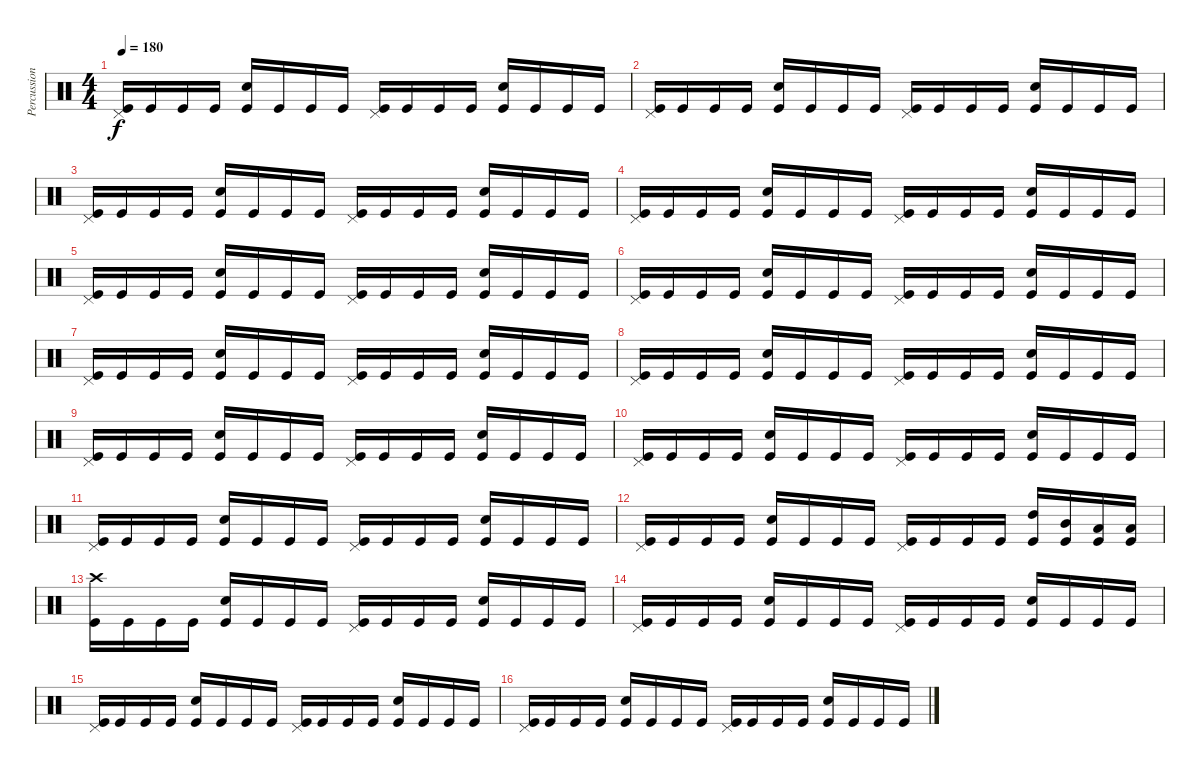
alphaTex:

\track ("Percussion" "Percussion") {instrument percussion}
\staff {score}
\articulation defaults
\ts (4 4)
\tempo 180
\clef neutral
\ks c
("Pedal Hi-Hat (hit)" "Kick (hit)").16{dy f} "Kick (hit)".16 "Kick (hit)".16 "Kick (hit)".16 ("Electric Snare (hit)" "Kick (hit)").16 "Kick (hit)".16 "Kick (hit)".16 "Kick (hit)".16 ("Pedal Hi-Hat (hit)" "Kick (hit)").16 "Kick (hit)".16 "Kick (hit)".16 "Kick (hit)".16 ("Electric Snare (hit)" "Kick (hit)").16 "Kick (hit)".16 "Kick (hit)".16 "Kick (hit)".16 |
("Pedal Hi-Hat (hit)" "Kick (hit)").16 "Kick (hit)".16 "Kick (hit)".16 "Kick (hit)".16 ("Electric Snare (hit)" "Kick (hit)").16 "Kick (hit)".16 "Kick (hit)".16 "Kick (hit)".16 ("Pedal Hi-Hat (hit)" "Kick (hit)").16 "Kick (hit)".16 "Kick (hit)".16 "Kick (hit)".16 ("Electric Snare (hit)" "Kick (hit)").16 "Kick (hit)".16 "Kick (hit)".16 "Kick (hit)".16 |
("Pedal Hi-Hat (hit)" "Kick (hit)").16 "Kick (hit)".16 "Kick (hit)".16 "Kick (hit)".16 ("Electric Snare (hit)" "Kick (hit)").16 "Kick (hit)".16 "Kick (hit)".16 "Kick (hit)".16 ("Pedal Hi-Hat (hit)" "Kick (hit)").16 "Kick (hit)".16 "Kick (hit)".16 "Kick (hit)".16 ("Electric Snare (hit)" "Kick (hit)").16 "Kick (hit)".16 "Kick (hit)".16 "Kick (hit)".16 |
("Pedal Hi-Hat (hit)" "Kick (hit)").16 "Kick (hit)".16 "Kick (hit)".16 "Kick (hit)".16 ("Electric Snare (hit)" "Kick (hit)").16 "Kick (hit)".16 "Kick (hit)".16 "Kick (hit)".16 ("Pedal Hi-Hat (hit)" "Kick (hit)").16 "Kick (hit)".16 "Kick (hit)".16 "Kick (hit)".16 ("Electric Snare (hit)" "Kick (hit)").16 "Kick (hit)".16 "Kick (hit)".16 "Kick (hit)".16 |
("Pedal Hi-Hat (hit)" "Kick (hit)").16 "Kick (hit)".16 "Kick (hit)".16 "Kick (hit)".16 ("Electric Snare (hit)" "Kick (hit)").16 "Kick (hit)".16 "Kick (hit)".16 "Kick (hit)".16 ("Pedal Hi-Hat (hit)" "Kick (hit)").16 "Kick (hit)".16 "Kick (hit)".16 "Kick (hit)".16 ("Electric Snare (hit)" "Kick (hit)").16 "Kick (hit)".16 "Kick (hit)".16 "Kick (hit)".16 |
("Pedal Hi-Hat (hit)" "Kick (hit)").16 "Kick (hit)".16 "Kick (hit)".16 "Kick (hit)".16 ("Electric Snare (hit)" "Kick (hit)").16 "Kick (hit)".16 "Kick (hit)".16 "Kick (hit)".16 ("Pedal Hi-Hat (hit)" "Kick (hit)").16 "Kick (hit)".16 "Kick (hit)".16 "Kick (hit)".16 ("Electric Snare (hit)" "Kick (hit)").16 "Kick (hit)".16 "Kick (hit)".16 "Kick (hit)".16 |
("Pedal Hi-Hat (hit)" "Kick (hit)").16 "Kick (hit)".16 "Kick (hit)".16 "Kick (hit)".16 ("Electric Snare (hit)" "Kick (hit)").16 "Kick (hit)".16 "Kick (hit)".16 "Kick (hit)".16 ("Pedal Hi-Hat (hit)" "Kick (hit)").16 "Kick (hit)".16 "Kick (hit)".16 "Kick (hit)".16 ("Electric Snare (hit)" "Kick (hit)").16 "Kick (hit)".16 "Kick (hit)".16 "Kick (hit)".16 |
("Pedal Hi-Hat (hit)" "Kick (hit)").16 "Kick (hit)".16 "Kick (hit)".16 "Kick (hit)".16 ("Electric Snare (hit)" "Kick (hit)").16 "Kick (hit)".16 "Kick (hit)".16 "Kick (hit)".16 ("Pedal Hi-Hat (hit)" "Kick (hit)").16 "Kick (hit)".16 "Kick (hit)".16 "Kick (hit)".16 ("Electric Snare (hit)" "Kick (hit)").16 "Kick (hit)".16 "Kick (hit)".16 "Kick (hit)".16 |
("Pedal Hi-Hat (hit)" "Kick (hit)").16 "Kick (hit)".16 "Kick (hit)".16 "Kick (hit)".16 ("Electric Snare (hit)" "Kick (hit)").16 "Kick (hit)".16 "Kick (hit)".16 "Kick (hit)".16 ("Pedal Hi-Hat (hit)" "Kick (hit)").16 "Kick (hit)".16 "Kick (hit)".16 "Kick (hit)".16 ("Electric Snare (hit)" "Kick (hit)").16 "Kick (hit)".16 "Kick (hit)".16 "Kick (hit)".16 |
("Pedal Hi-Hat (hit)" "Kick (hit)").16 "Kick (hit)".16 "Kick (hit)".16 "Kick (hit)".16 ("Electric Snare (hit)" "Kick (hit)").16 "Kick (hit)".16 "Kick (hit)".16 "Kick (hit)".16 ("Pedal Hi-Hat (hit)" "Kick (hit)").16 "Kick (hit)".16 "Kick (hit)".16 "Kick (hit)".16 ("Electric Snare (hit)" "Kick (hit)").16 "Kick (hit)".16 "Kick (hit)".16 "Kick (hit)".16 |
("Pedal Hi-Hat (hit)" "Kick (hit)").16 "Kick (hit)".16 "Kick (hit)".16 "Kick (hit)".16 ("Electric Snare (hit)" "Kick (hit)").16 "Kick (hit)".16 "Kick (hit)".16 "Kick (hit)".16 ("Pedal Hi-Hat (hit)" "Kick (hit)").16 "Kick (hit)".16 "Kick (hit)".16 "Kick (hit)".16 ("Electric Snare (hit)" "Kick (hit)").16 "Kick (hit)".16 "Kick (hit)".16 "Kick (hit)".16 |
("Pedal Hi-Hat (hit)" "Kick (hit)").16 "Kick (hit)".16 "Kick (hit)".16 "Kick (hit)".16 ("Electric Snare (hit)" "Kick (hit)").16 "Kick (hit)".16 "Kick (hit)".16 "Kick (hit)".16 ("Pedal Hi-Hat (hit)" "Kick (hit)").16 "Kick (hit)".16 "Kick (hit)".16 "Kick (hit)".16 ("High Tom (hit)" "Kick (hit)").16 ("Mid Tom (hit)" "Kick (hit)").16 ("Low Tom (hit)" "Kick (hit)").16 ("Low Floor Tom (hit)" "Kick (hit)").16 |
("Crash high (hit)" "Kick (hit)").16 "Kick (hit)".16 "Kick (hit)".16 "Kick (hit)".16 ("Electric Snare (hit)" "Kick (hit)").16 "Kick (hit)".16 "Kick (hit)".16 "Kick (hit)".16 ("Pedal Hi-Hat (hit)" "Kick (hit)").16 "Kick (hit)".16 "Kick (hit)".16 "Kick (hit)".16 ("Electric Snare (hit)" "Kick (hit)").16 "Kick (hit)".16 "Kick (hit)".16 "Kick (hit)".16 |
("Pedal Hi-Hat (hit)" "Kick (hit)").16 "Kick (hit)".16 "Kick (hit)".16 "Kick (hit)".16 ("Electric Snare (hit)" "Kick (hit)").16 "Kick (hit)".16 "Kick (hit)".16 "Kick (hit)".16 ("Pedal Hi-Hat (hit)" "Kick (hit)").16 "Kick (hit)".16 "Kick (hit)".16 "Kick (hit)".16 ("Electric Snare (hit)" "Kick (hit)").16 "Kick (hit)".16 "Kick (hit)".16 "Kick (hit)".16 |
("Pedal Hi-Hat (hit)" "Kick (hit)").16 "Kick (hit)".16 "Kick (hit)".16 "Kick (hit)".16 ("Electric Snare (hit)" "Kick (hit)").16 "Kick (hit)".16 "Kick (hit)".16 "Kick (hit)".16 ("Pedal Hi-Hat (hit)" "Kick (hit)").16 "Kick (hit)".16 "Kick (hit)".16 "Kick (hit)".16 ("Electric Snare (hit)" "Kick (hit)").16 "Kick (hit)".16 "Kick (hit)".16 "Kick (hit)".16 |
("Pedal Hi-Hat (hit)" "Kick (hit)").16 "Kick (hit)".16 "Kick (hit)".16 "Kick (hit)".16 ("Electric Snare (hit)" "Kick (hit)").16 "Kick (hit)".16 "Kick (hit)".16 "Kick (hit)".16 ("Pedal Hi-Hat (hit)" "Kick (hit)").16 "Kick (hit)".16 "Kick (hit)".16 "Kick (hit)".16 ("Electric Snare (hit)" "Kick (hit)").16 "Kick (hit)".16 "Kick (hit)".16 "Kick (hit)".16
